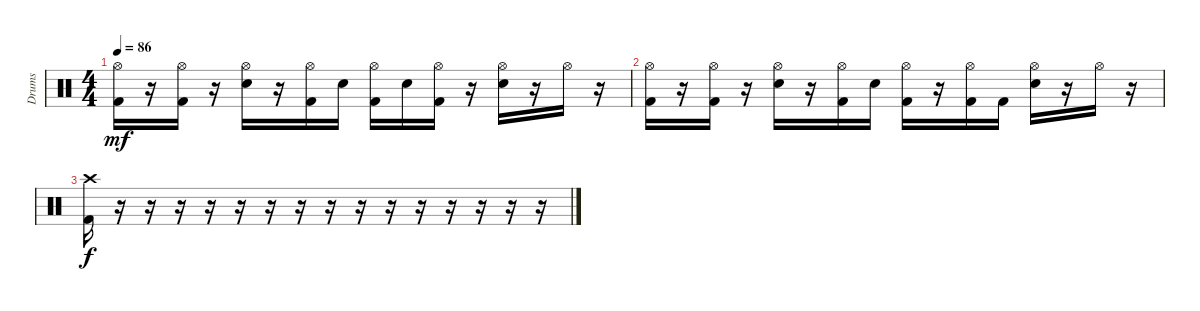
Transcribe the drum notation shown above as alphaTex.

\track ("Drums" "Drums") {instrument percussion}
\staff {score}
\articulation defaults
\ts (4 4)
\tempo 86
\clef neutral
\ks c
("Hi-Hat (open)" "Kick (hit) 2").16{dy mf} r.16 ("Hi-Hat (open)" "Kick (hit) 2").16 r.16 ("Hi-Hat (open)" "Electric Snare (hit)").16 r.16 ("Hi-Hat (open)" "Kick (hit) 2").16 "Electric Snare (hit)".16 ("Hi-Hat (open)" "Kick (hit) 2").16 "Electric Snare (hit)".16 ("Hi-Hat (open)" "Kick (hit) 2").16 r.16 ("Hi-Hat (open)" "Electric Snare (hit)").16 r.16 "Hi-Hat (open)".16 r.16 |
("Hi-Hat (open)" "Kick (hit) 2").16 r.16 ("Hi-Hat (open)" "Kick (hit) 2").16 r.16 ("Hi-Hat (open)" "Electric Snare (hit)").16 r.16 ("Hi-Hat (open)" "Kick (hit) 2").16 "Electric Snare (hit)".16 ("Hi-Hat (open)" "Kick (hit) 2").16 r.16 ("Hi-Hat (open)" "Kick (hit) 2").16 "Kick (hit) 2".16 ("Hi-Hat (open)" "Electric Snare (hit)").16 r.16 "Hi-Hat (open)".16 r.16 |
("Crash high (hit)" "Kick (hit) 2").16{dy f} r.16 r.16 r.16 r.16 r.16 r.16 r.16 r.16 r.16 r.16 r.16 r.16 r.16 r.16 r.16
